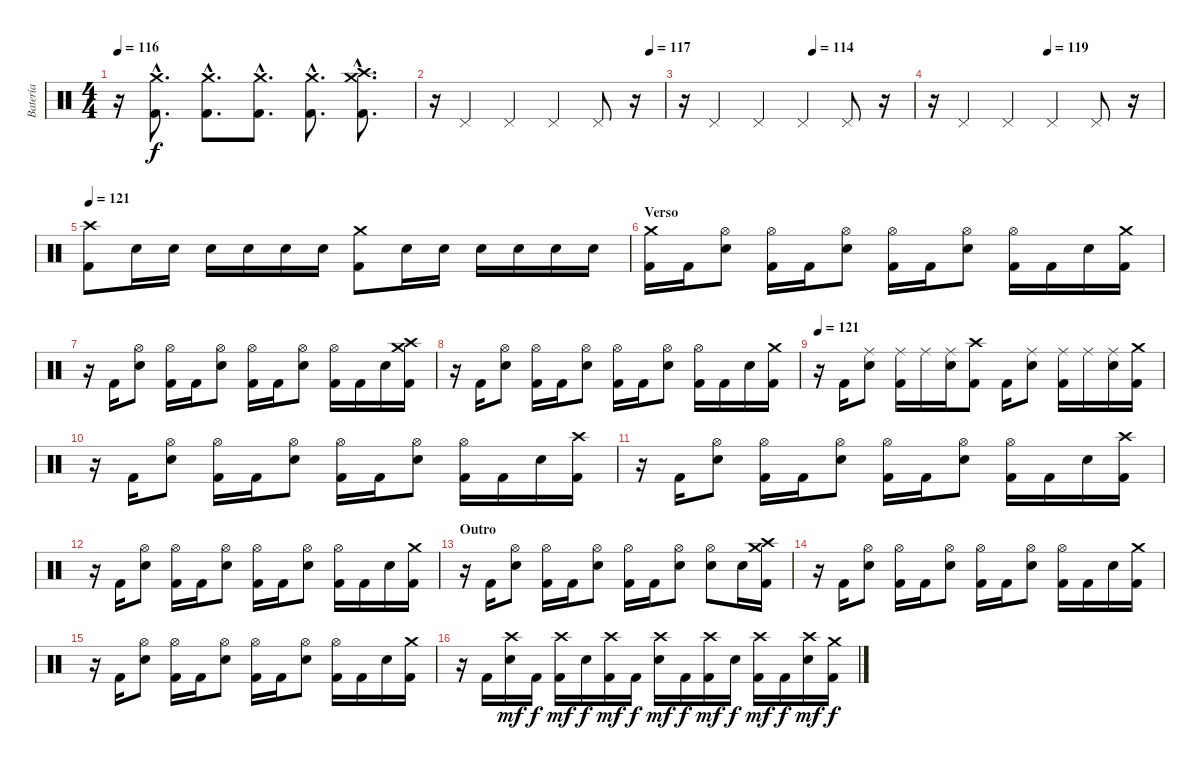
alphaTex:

\track ("Batería" "Batería") {instrument percussion}
\staff {score}
\articulation defaults
\ts (4 4)
\tempo 116
\clef neutral
\ks c
r.16{dy ppp} ("Crash medium (hit)"{hac} "Kick (hit) 2"{hac}).8{d dy f} ("Crash medium (hit)"{hac} "Kick (hit) 2"{hac}).8{d} ("Crash medium (hit)"{hac} "Kick (hit) 2"{hac}).8{d} ("Crash medium (hit)"{hac} "Kick (hit) 2"{hac}).8{d} ("Crash medium (hit)"{hac} "Crash high (hit)"{hac} "Kick (hit) 2"{hac}).8{d} |
\tempo (117 0.9375)
r.16 "Pedal Hi-Hat (hit)".4 "Pedal Hi-Hat (hit)".4 "Pedal Hi-Hat (hit)".4 "Pedal Hi-Hat (hit)".8 r.16 |
\tempo (114 0.5625)
r.16 "Pedal Hi-Hat (hit)".4 "Pedal Hi-Hat (hit)".4 "Pedal Hi-Hat (hit)".4 "Pedal Hi-Hat (hit)".8 r.16 |
\tempo (119 0.5)
r.16 "Pedal Hi-Hat (hit)".4 "Pedal Hi-Hat (hit)".4 "Pedal Hi-Hat (hit)".4 "Pedal Hi-Hat (hit)".8 r.16 |
\tempo 121
("Crash high (hit)" "Kick (hit) 2").8 "Electric Snare (hit)".16 "Electric Snare (hit)".16 "Electric Snare (hit)".16 "Electric Snare (hit)".16 "Electric Snare (hit)".16 "Electric Snare (hit)".16 ("Crash medium (hit)" "Kick (hit) 2").8 "Electric Snare (hit)".16 "Electric Snare (hit)".16 "Electric Snare (hit)".16 "Electric Snare (hit)".16 "Electric Snare (hit)".16 "Electric Snare (hit)".16 |
\section ("" "Verso")
("Crash medium (hit)" "Kick (hit) 2").16 "Kick (hit) 2".16 ("Hi-Hat (open)" "Electric Snare (hit)").8 ("Hi-Hat (open)" "Kick (hit) 2").16 "Kick (hit) 2".16 ("Hi-Hat (open)" "Electric Snare (hit)").8 ("Hi-Hat (open)" "Kick (hit) 2").16 "Kick (hit) 2".16 ("Hi-Hat (open)" "Electric Snare (hit)").8 ("Hi-Hat (open)" "Kick (hit) 2").16 "Kick (hit) 2".16 "Electric Snare (hit)".16 ("Crash medium (hit)" "Kick (hit) 2").16 |
r.16 "Kick (hit) 2".16 ("Hi-Hat (open)" "Electric Snare (hit)").8 ("Hi-Hat (open)" "Kick (hit) 2").16 "Kick (hit) 2".16 ("Hi-Hat (open)" "Electric Snare (hit)").8 ("Hi-Hat (open)" "Kick (hit) 2").16 "Kick (hit) 2".16 ("Hi-Hat (open)" "Electric Snare (hit)").8 ("Hi-Hat (open)" "Kick (hit) 2").16 "Kick (hit) 2".16 "Electric Snare (hit)".16 ("Crash medium (hit)" "Crash high (hit)" "Kick (hit) 2").16 |
r.16 "Kick (hit) 2".16 ("Hi-Hat (open)" "Electric Snare (hit)").8 ("Hi-Hat (open)" "Kick (hit) 2").16 "Kick (hit) 2".16 ("Hi-Hat (open)" "Electric Snare (hit)").8 ("Hi-Hat (open)" "Kick (hit) 2").16 "Kick (hit) 2".16 ("Hi-Hat (open)" "Electric Snare (hit)").8 ("Hi-Hat (open)" "Kick (hit) 2").16 "Kick (hit) 2".16 "Electric Snare (hit)".16 ("Crash medium (hit)" "Kick (hit) 2").16 |
\tempo 121
r.16 "Kick (hit) 2".16 ("Ride (middle)" "Electric Snare (hit)").8 ("Ride (middle)" "Kick (hit) 2").16 "Ride (middle)".16 ("Ride (middle)" "Electric Snare (hit)").16 ("Crash high (hit)" "Kick (hit) 2").8 "Kick (hit) 2".16 ("Ride (middle)" "Electric Snare (hit)").8 ("Ride (middle)" "Kick (hit) 2").16 "Ride (middle)".16 ("Ride (middle)" "Electric Snare (hit)").16 ("Crash medium (hit)" "Kick (hit) 2").16 |
r.16 "Kick (hit) 2".16 ("Hi-Hat (open)" "Electric Snare (hit)").8 ("Hi-Hat (open)" "Kick (hit) 2").16 "Kick (hit) 2".16 ("Hi-Hat (open)" "Electric Snare (hit)").8 ("Hi-Hat (open)" "Kick (hit) 2").16 "Kick (hit) 2".16 ("Hi-Hat (open)" "Electric Snare (hit)").8 ("Hi-Hat (open)" "Kick (hit) 2").16 "Kick (hit) 2".16 "Electric Snare (hit)".16 ("Crash high (hit)" "Kick (hit) 2").16 |
r.16 "Kick (hit) 2".16 ("Hi-Hat (open)" "Electric Snare (hit)").8 ("Hi-Hat (open)" "Kick (hit) 2").16 "Kick (hit) 2".16 ("Hi-Hat (open)" "Electric Snare (hit)").8 ("Hi-Hat (open)" "Kick (hit) 2").16 "Kick (hit) 2".16 ("Hi-Hat (open)" "Electric Snare (hit)").8 ("Hi-Hat (open)" "Kick (hit) 2").16 "Kick (hit) 2".16 "Electric Snare (hit)".16 ("Crash high (hit)" "Kick (hit) 2").16 |
r.16 "Kick (hit) 2".16 ("Hi-Hat (open)" "Electric Snare (hit)").8 ("Hi-Hat (open)" "Kick (hit) 2").16 "Kick (hit) 2".16 ("Hi-Hat (open)" "Electric Snare (hit)").8 ("Hi-Hat (open)" "Kick (hit) 2").16 "Kick (hit) 2".16 ("Hi-Hat (open)" "Electric Snare (hit)").8 ("Hi-Hat (open)" "Kick (hit) 2").16 "Kick (hit) 2".16 "Electric Snare (hit)".16 ("Crash medium (hit)" "Kick (hit) 2").16 |
\section ("" "Outro")
r.16 "Kick (hit) 2".16 ("Hi-Hat (open)" "Electric Snare (hit)").8 ("Hi-Hat (open)" "Kick (hit) 2").16 "Kick (hit) 2".16 ("Hi-Hat (open)" "Electric Snare (hit)").8 ("Hi-Hat (open)" "Kick (hit) 2").16 "Kick (hit) 2".16 ("Hi-Hat (open)" "Electric Snare (hit)").8 ("Hi-Hat (open)" "Electric Snare (hit)").8 "Electric Snare (hit)".16 ("Crash medium (hit)" "Crash high (hit)" "Kick (hit) 2").16 |
r.16 "Kick (hit) 2".16 ("Hi-Hat (open)" "Electric Snare (hit)").8 ("Hi-Hat (open)" "Kick (hit) 2").16 "Kick (hit) 2".16 ("Hi-Hat (open)" "Electric Snare (hit)").8 ("Hi-Hat (open)" "Kick (hit) 2").16 "Kick (hit) 2".16 ("Hi-Hat (open)" "Electric Snare (hit)").8 ("Hi-Hat (open)" "Kick (hit) 2").16 "Kick (hit) 2".16 "Electric Snare (hit)".16 ("Crash medium (hit)" "Kick (hit) 2").16 |
r.16 "Kick (hit) 2".16 ("Hi-Hat (open)" "Electric Snare (hit)").8 ("Hi-Hat (open)" "Kick (hit) 2").16 "Kick (hit) 2".16 ("Hi-Hat (open)" "Electric Snare (hit)").8 ("Hi-Hat (open)" "Kick (hit) 2").16 "Kick (hit) 2".16 ("Hi-Hat (open)" "Electric Snare (hit)").8 ("Hi-Hat (open)" "Kick (hit) 2").16 "Kick (hit) 2".16 "Electric Snare (hit)".16 ("Crash medium (hit)" "Kick (hit) 2").16 |
r.16 "Kick (hit) 2".16 ("Crash high (hit)" "Electric Snare (hit)").16{dy mf} "Kick (hit) 2".16{dy f} ("Crash high (hit)" "Kick (hit) 2").16{dy mf} "Electric Snare (hit)".16{dy f} ("Crash high (hit)" "Kick (hit) 2").16{dy mf} "Kick (hit) 2".16{dy f} ("Crash high (hit)" "Electric Snare (hit)").16{dy mf} "Kick (hit) 2".16{dy f} ("Crash high (hit)" "Kick (hit) 2").16{dy mf} "Electric Snare (hit)".16{dy f} ("Crash high (hit)" "Kick (hit) 2").16{dy mf} "Kick (hit) 2".16{dy f} ("Crash high (hit)" "Electric Snare (hit)").16{dy mf} ("Crash medium (hit)" "Kick (hit) 2").16{dy f}
